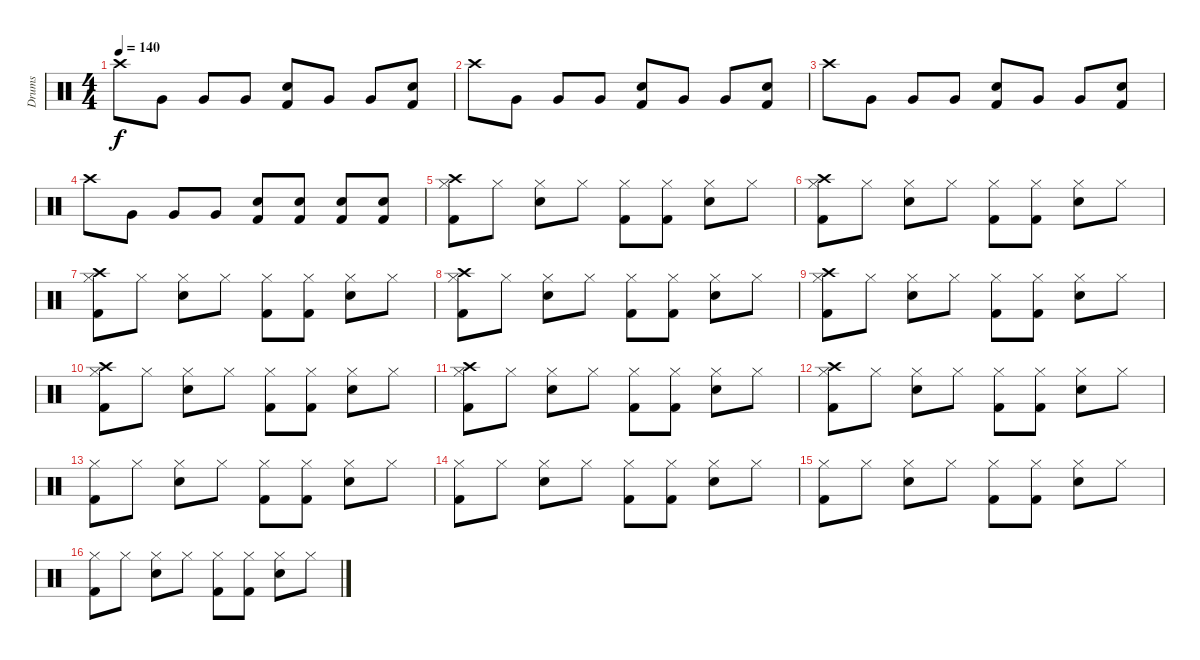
\track ("Drums" "Drums") {instrument percussion}
\staff {score}
\articulation defaults
\ts (4 4)
\tempo 140
\clef neutral
\ks c "Crash high (hit)".8{dy f} "Very Low Tom (hit)".8 "Very Low Tom (hit)".8 "Very Low Tom (hit)".8
("Kick (hit) 2" "Snare (hit) 2").8 "Very Low Tom (hit)".8 "Very Low Tom (hit)".8 ("Kick (hit) 2" "Snare (hit) 2").8 |
"Crash high (hit)".8 "Very Low Tom (hit)".8 "Very Low Tom (hit)".8 "Very Low Tom (hit)".8 ("Kick (hit) 2" "Snare (hit) 2").8 "Very Low Tom (hit)".8 "Very Low Tom (hit)".8 ("Kick (hit) 2" "Snare (hit) 2").8 |
"Crash high (hit)".8 "Very Low Tom (hit)".8 "Very Low Tom (hit)".8 "Very Low Tom (hit)".8 ("Kick (hit) 2" "Snare (hit) 2").8 "Very Low Tom (hit)".8 "Very Low Tom (hit)".8 ("Kick (hit) 2" "Snare (hit) 2").8 |
"Crash high (hit)".8 "Very Low Tom (hit)".8 "Very Low Tom (hit)".8 "Very Low Tom (hit)".8 ("Kick (hit) 2" "Snare (hit) 2").8 ("Kick (hit) 2" "Snare (hit) 2").8 ("Kick (hit) 2" "Snare (hit) 2").8 ("Kick (hit) 2" "Snare (hit) 2").8 |
("Hi-Hat (closed)" "Kick (hit) 2" "Crash high (hit)").8 "Hi-Hat (closed)".8 ("Hi-Hat (closed)" "Snare (hit) 2").8 "Hi-Hat (closed)".8 ("Hi-Hat (closed)" "Kick (hit) 2").8 ("Hi-Hat (closed)" "Kick (hit) 2").8 ("Hi-Hat (closed)" "Snare (hit) 2").8 "Hi-Hat (closed)".8 |
("Hi-Hat (closed)" "Kick (hit) 2" "Crash high (hit)").8 "Hi-Hat (closed)".8 ("Hi-Hat (closed)" "Snare (hit) 2").8 "Hi-Hat (closed)".8 ("Hi-Hat (closed)" "Kick (hit) 2").8 ("Hi-Hat (closed)" "Kick (hit) 2").8 ("Hi-Hat (closed)" "Snare (hit) 2").8 "Hi-Hat (closed)".8 |
("Hi-Hat (closed)" "Kick (hit) 2" "Crash high (hit)").8 "Hi-Hat (closed)".8 ("Hi-Hat (closed)" "Snare (hit) 2").8 "Hi-Hat (closed)".8 ("Hi-Hat (closed)" "Kick (hit) 2").8 ("Hi-Hat (closed)" "Kick (hit) 2").8 ("Hi-Hat (closed)" "Snare (hit) 2").8 "Hi-Hat (closed)".8 |
("Hi-Hat (closed)" "Kick (hit) 2" "Crash high (hit)").8 "Hi-Hat (closed)".8 ("Hi-Hat (closed)" "Snare (hit) 2").8 "Hi-Hat (closed)".8 ("Hi-Hat (closed)" "Kick (hit) 2").8 ("Hi-Hat (closed)" "Kick (hit) 2").8 ("Hi-Hat (closed)" "Snare (hit) 2").8 "Hi-Hat (closed)".8 |
("Hi-Hat (closed)" "Kick (hit) 2" "Crash high (hit)").8 "Hi-Hat (closed)".8 ("Hi-Hat (closed)" "Snare (hit) 2").8 "Hi-Hat (closed)".8 ("Hi-Hat (closed)" "Kick (hit) 2").8 ("Hi-Hat (closed)" "Kick (hit) 2").8 ("Hi-Hat (closed)" "Snare (hit) 2").8 "Hi-Hat (closed)".8 |
("Hi-Hat (closed)" "Kick (hit) 2" "Crash high (hit)").8 "Hi-Hat (closed)".8 ("Hi-Hat (closed)" "Snare (hit) 2").8 "Hi-Hat (closed)".8 ("Hi-Hat (closed)" "Kick (hit) 2").8 ("Hi-Hat (closed)" "Kick (hit) 2").8 ("Hi-Hat (closed)" "Snare (hit) 2").8 "Hi-Hat (closed)".8 |
("Hi-Hat (closed)" "Kick (hit) 2" "Crash high (hit)").8 "Hi-Hat (closed)".8 ("Hi-Hat (closed)" "Snare (hit) 2").8 "Hi-Hat (closed)".8 ("Hi-Hat (closed)" "Kick (hit) 2").8 ("Hi-Hat (closed)" "Kick (hit) 2").8 ("Hi-Hat (closed)" "Snare (hit) 2").8 "Hi-Hat (closed)".8 |
("Hi-Hat (closed)" "Kick (hit) 2" "Crash high (hit)").8 "Hi-Hat (closed)".8 ("Hi-Hat (closed)" "Snare (hit) 2").8 "Hi-Hat (closed)".8 ("Hi-Hat (closed)" "Kick (hit) 2").8 ("Hi-Hat (closed)" "Kick (hit) 2").8 ("Hi-Hat (closed)" "Snare (hit) 2").8 "Hi-Hat (closed)".8 |
("Hi-Hat (closed)" "Kick (hit) 2").8 "Hi-Hat (closed)".8 ("Hi-Hat (closed)" "Snare (hit) 2").8 "Hi-Hat (closed)".8 ("Hi-Hat (closed)" "Kick (hit) 2").8 ("Hi-Hat (closed)" "Kick (hit) 2").8 ("Hi-Hat (closed)" "Snare (hit) 2").8 "Hi-Hat (closed)".8 |
("Hi-Hat (closed)" "Kick (hit) 2").8 "Hi-Hat (closed)".8 ("Hi-Hat (closed)" "Snare (hit) 2").8 "Hi-Hat (closed)".8 ("Hi-Hat (closed)" "Kick (hit) 2").8 ("Hi-Hat (closed)" "Kick (hit) 2").8 ("Hi-Hat (closed)" "Snare (hit) 2").8 "Hi-Hat (closed)".8 |
("Hi-Hat (closed)" "Kick (hit) 2").8 "Hi-Hat (closed)".8 ("Hi-Hat (closed)" "Snare (hit) 2").8 "Hi-Hat (closed)".8 ("Hi-Hat (closed)" "Kick (hit) 2").8 ("Hi-Hat (closed)" "Kick (hit) 2").8 ("Hi-Hat (closed)" "Snare (hit) 2").8 "Hi-Hat (closed)".8 |
("Hi-Hat (closed)" "Kick (hit) 2").8 "Hi-Hat (closed)".8 ("Hi-Hat (closed)" "Snare (hit) 2").8 "Hi-Hat (closed)".8 ("Hi-Hat (closed)" "Kick (hit) 2").8 ("Hi-Hat (closed)" "Kick (hit) 2").8 ("Hi-Hat (closed)" "Snare (hit) 2").8 "Hi-Hat (closed)".8
